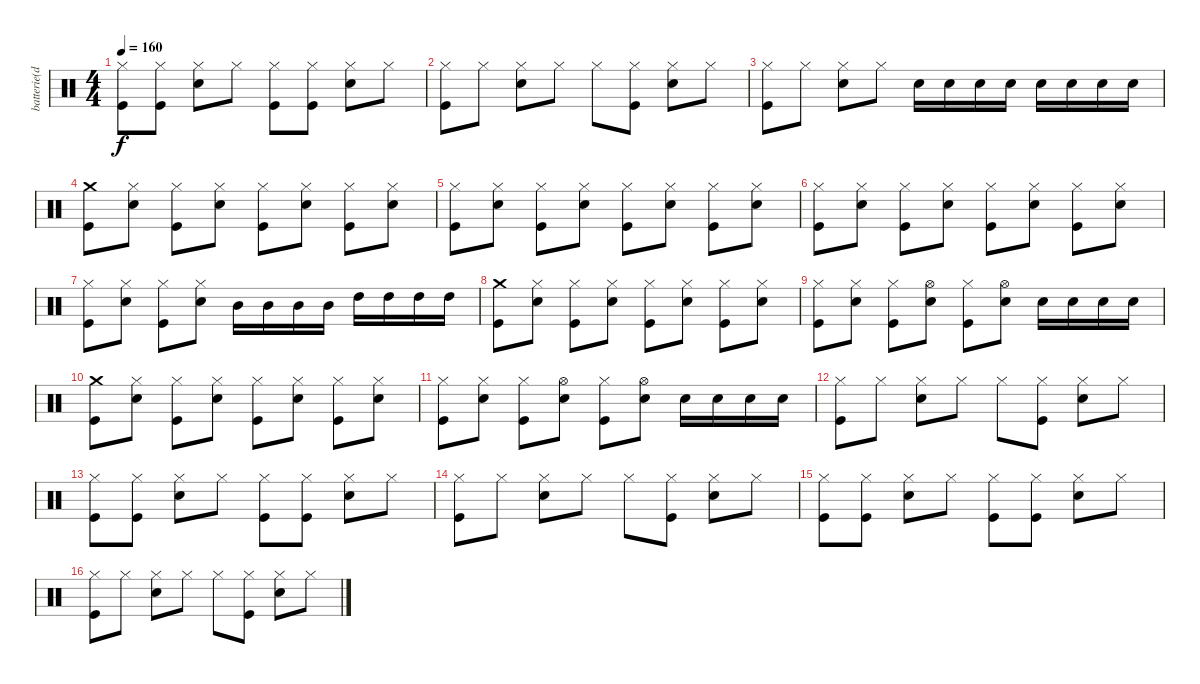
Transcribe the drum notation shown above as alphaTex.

\track ("batterie(dave)" "batterie(d") {instrument percussion}
\staff {score}
\articulation defaults
\ts (4 4)
\tempo 160
\clef neutral
\ks c
("Hi-Hat (closed)" "Kick (hit)").8{dy f} ("Hi-Hat (closed)" "Kick (hit)").8 ("Hi-Hat (closed)" "Snare (hit) 2").8 "Hi-Hat (closed)".8 ("Hi-Hat (closed)" "Kick (hit)").8 ("Hi-Hat (closed)" "Kick (hit)").8 ("Hi-Hat (closed)" "Snare (hit) 2").8 "Hi-Hat (closed)".8 |
("Hi-Hat (closed)" "Kick (hit)").8 "Hi-Hat (closed)".8 ("Hi-Hat (closed)" "Snare (hit) 2").8 "Hi-Hat (closed)".8 "Hi-Hat (closed)".8 ("Hi-Hat (closed)" "Kick (hit)").8 ("Hi-Hat (closed)" "Snare (hit) 2").8 "Hi-Hat (closed)".8 |
("Hi-Hat (closed)" "Kick (hit)").8 "Hi-Hat (closed)".8 ("Hi-Hat (closed)" "Snare (hit) 2").8 "Hi-Hat (closed)".8 "Snare (hit) 2".16 "Snare (hit) 2".16 "Snare (hit) 2".16 "Snare (hit) 2".16 "Snare (hit) 2".16 "Snare (hit) 2".16 "Snare (hit) 2".16 "Snare (hit) 2".16 |
("Crash medium (hit)" "Kick (hit)").8 ("Hi-Hat (closed)" "Snare (hit) 2").8 ("Hi-Hat (closed)" "Kick (hit)").8 ("Hi-Hat (closed)" "Snare (hit) 2").8 ("Hi-Hat (closed)" "Kick (hit)").8 ("Hi-Hat (closed)" "Snare (hit) 2").8 ("Hi-Hat (closed)" "Kick (hit)").8 ("Hi-Hat (closed)" "Snare (hit) 2").8 |
("Hi-Hat (closed)" "Kick (hit)").8 ("Hi-Hat (closed)" "Snare (hit) 2").8 ("Hi-Hat (closed)" "Kick (hit)").8 ("Hi-Hat (closed)" "Snare (hit) 2").8 ("Hi-Hat (closed)" "Kick (hit)").8 ("Hi-Hat (closed)" "Snare (hit) 2").8 ("Hi-Hat (closed)" "Kick (hit)").8 ("Hi-Hat (closed)" "Snare (hit) 2").8 |
("Hi-Hat (closed)" "Kick (hit)").8 ("Hi-Hat (closed)" "Snare (hit) 2").8 ("Hi-Hat (closed)" "Kick (hit)").8 ("Hi-Hat (closed)" "Snare (hit) 2").8 ("Hi-Hat (closed)" "Kick (hit)").8 ("Hi-Hat (closed)" "Snare (hit) 2").8 ("Hi-Hat (closed)" "Kick (hit)").8 ("Hi-Hat (closed)" "Snare (hit) 2").8 |
("Hi-Hat (closed)" "Kick (hit)").8 ("Hi-Hat (closed)" "Snare (hit) 2").8 ("Hi-Hat (closed)" "Kick (hit)").8 ("Hi-Hat (closed)" "Snare (hit) 2").8 "Mid Tom (hit)".16 "Mid Tom (hit)".16 "Mid Tom (hit)".16 "Mid Tom (hit)".16 "High Tom (hit)".16 "High Tom (hit)".16 "High Tom (hit)".16 "High Tom (hit)".16 |
("Crash medium (hit)" "Kick (hit)").8 ("Hi-Hat (closed)" "Snare (hit) 2").8 ("Hi-Hat (closed)" "Kick (hit)").8 ("Hi-Hat (closed)" "Snare (hit) 2").8 ("Hi-Hat (closed)" "Kick (hit)").8 ("Hi-Hat (closed)" "Snare (hit) 2").8 ("Hi-Hat (closed)" "Kick (hit)").8 ("Hi-Hat (closed)" "Snare (hit) 2").8 |
("Hi-Hat (closed)" "Kick (hit)").8 ("Hi-Hat (closed)" "Snare (hit) 2").8 ("Hi-Hat (closed)" "Kick (hit)").8 ("Hi-Hat (open)" "Snare (hit) 2").8 ("Hi-Hat (closed)" "Kick (hit)").8 ("Hi-Hat (open)" "Snare (hit) 2").8 "Snare (hit) 2".16 "Snare (hit) 2".16 "Snare (hit) 2".16 "Snare (hit) 2".16 |
("Crash medium (hit)" "Kick (hit)").8 ("Hi-Hat (closed)" "Snare (hit) 2").8 ("Hi-Hat (closed)" "Kick (hit)").8 ("Hi-Hat (closed)" "Snare (hit) 2").8 ("Hi-Hat (closed)" "Kick (hit)").8 ("Hi-Hat (closed)" "Snare (hit) 2").8 ("Hi-Hat (closed)" "Kick (hit)").8 ("Hi-Hat (closed)" "Snare (hit) 2").8 |
("Hi-Hat (closed)" "Kick (hit)").8 ("Hi-Hat (closed)" "Snare (hit) 2").8 ("Hi-Hat (closed)" "Kick (hit)").8 ("Hi-Hat (open)" "Snare (hit) 2").8 ("Hi-Hat (closed)" "Kick (hit)").8 ("Hi-Hat (open)" "Snare (hit) 2").8 "Snare (hit) 2".16 "Snare (hit) 2".16 "Snare (hit) 2".16 "Snare (hit) 2".16 |
("Hi-Hat (closed)" "Kick (hit)").8 "Hi-Hat (closed)".8 ("Hi-Hat (closed)" "Snare (hit) 2").8 "Hi-Hat (closed)".8 "Hi-Hat (closed)".8 ("Hi-Hat (closed)" "Kick (hit)").8 ("Hi-Hat (closed)" "Snare (hit) 2").8 "Hi-Hat (closed)".8 |
("Hi-Hat (closed)" "Kick (hit)").8 ("Hi-Hat (closed)" "Kick (hit)").8 ("Hi-Hat (closed)" "Snare (hit) 2").8 "Hi-Hat (closed)".8 ("Hi-Hat (closed)" "Kick (hit)").8 ("Hi-Hat (closed)" "Kick (hit)").8 ("Hi-Hat (closed)" "Snare (hit) 2").8 "Hi-Hat (closed)".8 |
("Hi-Hat (closed)" "Kick (hit)").8 "Hi-Hat (closed)".8 ("Hi-Hat (closed)" "Snare (hit) 2").8 "Hi-Hat (closed)".8 "Hi-Hat (closed)".8 ("Hi-Hat (closed)" "Kick (hit)").8 ("Hi-Hat (closed)" "Snare (hit) 2").8 "Hi-Hat (closed)".8 |
("Hi-Hat (closed)" "Kick (hit)").8 ("Hi-Hat (closed)" "Kick (hit)").8 ("Hi-Hat (closed)" "Snare (hit) 2").8 "Hi-Hat (closed)".8 ("Hi-Hat (closed)" "Kick (hit)").8 ("Hi-Hat (closed)" "Kick (hit)").8 ("Hi-Hat (closed)" "Snare (hit) 2").8 "Hi-Hat (closed)".8 |
("Hi-Hat (closed)" "Kick (hit)").8 "Hi-Hat (closed)".8 ("Hi-Hat (closed)" "Snare (hit) 2").8 "Hi-Hat (closed)".8 "Hi-Hat (closed)".8 ("Hi-Hat (closed)" "Kick (hit)").8 ("Hi-Hat (closed)" "Snare (hit) 2").8 "Hi-Hat (closed)".8
